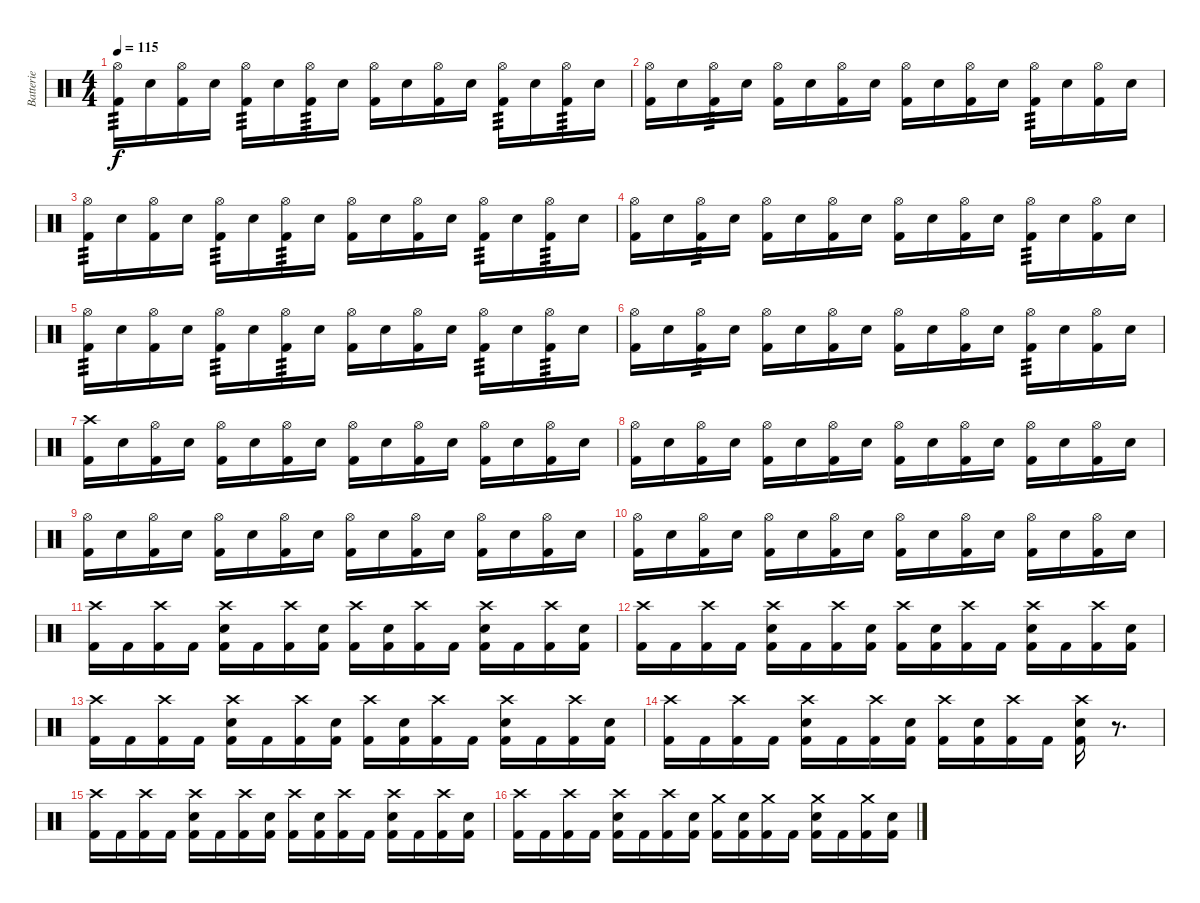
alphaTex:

\track ("Batterie" "Batterie") {instrument percussion}
\staff {score}
\articulation defaults
\ts (4 4)
\tempo 115
\clef neutral
\ks c
("Hi-Hat (open)" "Kick (hit) 2").16{tp 3 dy f} "Electric Snare (hit)".16 ("Hi-Hat (open)" "Kick (hit) 2").16 "Electric Snare (hit)".16 ("Hi-Hat (open)" "Kick (hit) 2").16{tp 3} "Electric Snare (hit)".16 ("Hi-Hat (open)" "Kick (hit) 2").16{tp 3} "Electric Snare (hit)".16 ("Hi-Hat (open)" "Kick (hit) 2").16 "Electric Snare (hit)".16 ("Hi-Hat (open)" "Kick (hit) 2").16 "Electric Snare (hit)".16 ("Hi-Hat (open)" "Kick (hit) 2").16{tp 3} "Electric Snare (hit)".16 ("Hi-Hat (open)" "Kick (hit) 2").16{tp 3} "Electric Snare (hit)".16 |
("Hi-Hat (open)" "Kick (hit) 2").16 "Electric Snare (hit)".16 ("Hi-Hat (open)" "Kick (hit) 2").16{tp 3} "Electric Snare (hit)".16 ("Hi-Hat (open)" "Kick (hit) 2").16 "Electric Snare (hit)".16 ("Hi-Hat (open)" "Kick (hit) 2").16 "Electric Snare (hit)".16 ("Hi-Hat (open)" "Kick (hit) 2").16 "Electric Snare (hit)".16 ("Hi-Hat (open)" "Kick (hit) 2").16 "Electric Snare (hit)".16 ("Hi-Hat (open)" "Kick (hit) 2").16{tp 3} "Electric Snare (hit)".16 ("Hi-Hat (open)" "Kick (hit) 2").16 "Electric Snare (hit)".16 |
("Hi-Hat (open)" "Kick (hit) 2").16{tp 3} "Electric Snare (hit)".16 ("Hi-Hat (open)" "Kick (hit) 2").16 "Electric Snare (hit)".16 ("Hi-Hat (open)" "Kick (hit) 2").16{tp 3} "Electric Snare (hit)".16 ("Hi-Hat (open)" "Kick (hit) 2").16{tp 3} "Electric Snare (hit)".16 ("Hi-Hat (open)" "Kick (hit) 2").16 "Electric Snare (hit)".16 ("Hi-Hat (open)" "Kick (hit) 2").16 "Electric Snare (hit)".16 ("Hi-Hat (open)" "Kick (hit) 2").16{tp 3} "Electric Snare (hit)".16 ("Hi-Hat (open)" "Kick (hit) 2").16{tp 3} "Electric Snare (hit)".16 |
("Hi-Hat (open)" "Kick (hit) 2").16 "Electric Snare (hit)".16 ("Hi-Hat (open)" "Kick (hit) 2").16{tp 3} "Electric Snare (hit)".16 ("Hi-Hat (open)" "Kick (hit) 2").16 "Electric Snare (hit)".16 ("Hi-Hat (open)" "Kick (hit) 2").16 "Electric Snare (hit)".16 ("Hi-Hat (open)" "Kick (hit) 2").16 "Electric Snare (hit)".16 ("Hi-Hat (open)" "Kick (hit) 2").16 "Electric Snare (hit)".16 ("Hi-Hat (open)" "Kick (hit) 2").16{tp 3} "Electric Snare (hit)".16 ("Hi-Hat (open)" "Kick (hit) 2").16 "Electric Snare (hit)".16 |
("Hi-Hat (open)" "Kick (hit) 2").16{tp 3} "Electric Snare (hit)".16 ("Hi-Hat (open)" "Kick (hit) 2").16 "Electric Snare (hit)".16 ("Hi-Hat (open)" "Kick (hit) 2").16{tp 3} "Electric Snare (hit)".16 ("Hi-Hat (open)" "Kick (hit) 2").16{tp 3} "Electric Snare (hit)".16 ("Hi-Hat (open)" "Kick (hit) 2").16 "Electric Snare (hit)".16 ("Hi-Hat (open)" "Kick (hit) 2").16 "Electric Snare (hit)".16 ("Hi-Hat (open)" "Kick (hit) 2").16{tp 3} "Electric Snare (hit)".16 ("Hi-Hat (open)" "Kick (hit) 2").16{tp 3} "Electric Snare (hit)".16 |
("Hi-Hat (open)" "Kick (hit) 2").16 "Electric Snare (hit)".16 ("Hi-Hat (open)" "Kick (hit) 2").16{tp 3} "Electric Snare (hit)".16 ("Hi-Hat (open)" "Kick (hit) 2").16 "Electric Snare (hit)".16 ("Hi-Hat (open)" "Kick (hit) 2").16 "Electric Snare (hit)".16 ("Hi-Hat (open)" "Kick (hit) 2").16 "Electric Snare (hit)".16 ("Hi-Hat (open)" "Kick (hit) 2").16 "Electric Snare (hit)".16 ("Hi-Hat (open)" "Kick (hit) 2").16{tp 3} "Electric Snare (hit)".16 ("Hi-Hat (open)" "Kick (hit) 2").16 "Electric Snare (hit)".16 |
("Crash high (hit)" "Kick (hit) 2").16 "Electric Snare (hit)".16 ("Hi-Hat (open)" "Kick (hit) 2").16 "Electric Snare (hit)".16 ("Hi-Hat (open)" "Kick (hit) 2").16 "Electric Snare (hit)".16 ("Hi-Hat (open)" "Kick (hit) 2").16 "Electric Snare (hit)".16 ("Hi-Hat (open)" "Kick (hit) 2").16 "Electric Snare (hit)".16 ("Hi-Hat (open)" "Kick (hit) 2").16 "Electric Snare (hit)".16 ("Hi-Hat (open)" "Kick (hit) 2").16 "Electric Snare (hit)".16 ("Hi-Hat (open)" "Kick (hit) 2").16 "Electric Snare (hit)".16 |
("Hi-Hat (open)" "Kick (hit) 2").16 "Electric Snare (hit)".16 ("Hi-Hat (open)" "Kick (hit) 2").16 "Electric Snare (hit)".16 ("Hi-Hat (open)" "Kick (hit) 2").16 "Electric Snare (hit)".16 ("Hi-Hat (open)" "Kick (hit) 2").16 "Electric Snare (hit)".16 ("Hi-Hat (open)" "Kick (hit) 2").16 "Electric Snare (hit)".16 ("Hi-Hat (open)" "Kick (hit) 2").16 "Electric Snare (hit)".16 ("Hi-Hat (open)" "Kick (hit) 2").16 "Electric Snare (hit)".16 ("Hi-Hat (open)" "Kick (hit) 2").16 "Electric Snare (hit)".16 |
("Hi-Hat (open)" "Kick (hit) 2").16 "Electric Snare (hit)".16 ("Hi-Hat (open)" "Kick (hit) 2").16 "Electric Snare (hit)".16 ("Hi-Hat (open)" "Kick (hit) 2").16 "Electric Snare (hit)".16 ("Hi-Hat (open)" "Kick (hit) 2").16 "Electric Snare (hit)".16 ("Hi-Hat (open)" "Kick (hit) 2").16 "Electric Snare (hit)".16 ("Hi-Hat (open)" "Kick (hit) 2").16 "Electric Snare (hit)".16 ("Hi-Hat (open)" "Kick (hit) 2").16 "Electric Snare (hit)".16 ("Hi-Hat (open)" "Kick (hit) 2").16 "Electric Snare (hit)".16 |
("Hi-Hat (open)" "Kick (hit) 2").16 "Electric Snare (hit)".16 ("Hi-Hat (open)" "Kick (hit) 2").16 "Electric Snare (hit)".16 ("Hi-Hat (open)" "Kick (hit) 2").16 "Electric Snare (hit)".16 ("Hi-Hat (open)" "Kick (hit) 2").16 "Electric Snare (hit)".16 ("Hi-Hat (open)" "Kick (hit) 2").16 "Electric Snare (hit)".16 ("Hi-Hat (open)" "Kick (hit) 2").16 "Electric Snare (hit)".16 ("Hi-Hat (open)" "Kick (hit) 2").16 "Electric Snare (hit)".16 ("Hi-Hat (open)" "Kick (hit) 2").16 "Electric Snare (hit)".16 |
("Crash high (hit)" "Kick (hit) 2").16 "Kick (hit) 2".16 ("Crash high (hit)" "Kick (hit) 2").16 "Kick (hit) 2".16 ("Crash high (hit)" "Electric Snare (hit)" "Kick (hit) 2").16 "Kick (hit) 2".16 ("Crash high (hit)" "Kick (hit) 2").16 ("Electric Snare (hit)" "Kick (hit) 2").16 ("Crash high (hit)" "Kick (hit) 2").16 ("Electric Snare (hit)" "Kick (hit) 2").16 ("Crash high (hit)" "Kick (hit) 2").16 "Kick (hit) 2".16 ("Crash high (hit)" "Electric Snare (hit)" "Kick (hit) 2").16 "Kick (hit) 2".16 ("Crash high (hit)" "Kick (hit) 2").16 ("Electric Snare (hit)" "Kick (hit) 2").16 |
("Crash high (hit)" "Kick (hit) 2").16 "Kick (hit) 2".16 ("Crash high (hit)" "Kick (hit) 2").16 "Kick (hit) 2".16 ("Crash high (hit)" "Electric Snare (hit)" "Kick (hit) 2").16 "Kick (hit) 2".16 ("Crash high (hit)" "Kick (hit) 2").16 ("Electric Snare (hit)" "Kick (hit) 2").16 ("Crash high (hit)" "Kick (hit) 2").16 ("Electric Snare (hit)" "Kick (hit) 2").16 ("Crash high (hit)" "Kick (hit) 2").16 "Kick (hit) 2".16 ("Crash high (hit)" "Electric Snare (hit)" "Kick (hit) 2").16 "Kick (hit) 2".16 ("Crash high (hit)" "Kick (hit) 2").16 ("Electric Snare (hit)" "Kick (hit) 2").16 |
("Crash high (hit)" "Kick (hit) 2").16 "Kick (hit) 2".16 ("Crash high (hit)" "Kick (hit) 2").16 "Kick (hit) 2".16 ("Crash high (hit)" "Electric Snare (hit)" "Kick (hit) 2").16 "Kick (hit) 2".16 ("Crash high (hit)" "Kick (hit) 2").16 ("Electric Snare (hit)" "Kick (hit) 2").16 ("Crash high (hit)" "Kick (hit) 2").16 ("Electric Snare (hit)" "Kick (hit) 2").16 ("Crash high (hit)" "Kick (hit) 2").16 "Kick (hit) 2".16 ("Crash high (hit)" "Electric Snare (hit)" "Kick (hit) 2").16 "Kick (hit) 2".16 ("Crash high (hit)" "Kick (hit) 2").16 ("Electric Snare (hit)" "Kick (hit) 2").16 |
("Crash high (hit)" "Kick (hit) 2").16 "Kick (hit) 2".16 ("Crash high (hit)" "Kick (hit) 2").16 "Kick (hit) 2".16 ("Crash high (hit)" "Electric Snare (hit)" "Kick (hit) 2").16 "Kick (hit) 2".16 ("Crash high (hit)" "Kick (hit) 2").16 ("Electric Snare (hit)" "Kick (hit) 2").16 ("Crash high (hit)" "Kick (hit) 2").16 ("Electric Snare (hit)" "Kick (hit) 2").16 ("Crash high (hit)" "Kick (hit) 2").16 "Kick (hit) 2".16 ("Crash high (hit)" "Electric Snare (hit)" "Kick (hit) 2").16 r.8{d} |
("Crash high (hit)" "Kick (hit) 2").16 "Kick (hit) 2".16 ("Crash high (hit)" "Kick (hit) 2").16 "Kick (hit) 2".16 ("Crash high (hit)" "Electric Snare (hit)" "Kick (hit) 2").16 "Kick (hit) 2".16 ("Crash high (hit)" "Kick (hit) 2").16 ("Electric Snare (hit)" "Kick (hit) 2").16 ("Crash high (hit)" "Kick (hit) 2").16 ("Electric Snare (hit)" "Kick (hit) 2").16 ("Crash high (hit)" "Kick (hit) 2").16 "Kick (hit) 2".16 ("Crash high (hit)" "Electric Snare (hit)" "Kick (hit) 2").16 "Kick (hit) 2".16 ("Crash high (hit)" "Kick (hit) 2").16 ("Electric Snare (hit)" "Kick (hit) 2").16 |
("Crash high (hit)" "Kick (hit) 2").16 "Kick (hit) 2".16 ("Crash high (hit)" "Kick (hit) 2").16 "Kick (hit) 2".16 ("Crash high (hit)" "Electric Snare (hit)" "Kick (hit) 2").16 "Kick (hit) 2".16 ("Crash high (hit)" "Kick (hit) 2").16 ("Electric Snare (hit)" "Kick (hit) 2").16 ("Crash medium (hit)" "Kick (hit) 2").16 ("Electric Snare (hit)" "Kick (hit) 2").16 ("Crash medium (hit)" "Kick (hit) 2").16 "Kick (hit) 2".16 ("Crash medium (hit)" "Electric Snare (hit)" "Kick (hit) 2").16 "Kick (hit) 2".16 ("Crash medium (hit)" "Kick (hit) 2").16 ("Electric Snare (hit)" "Kick (hit) 2").16
